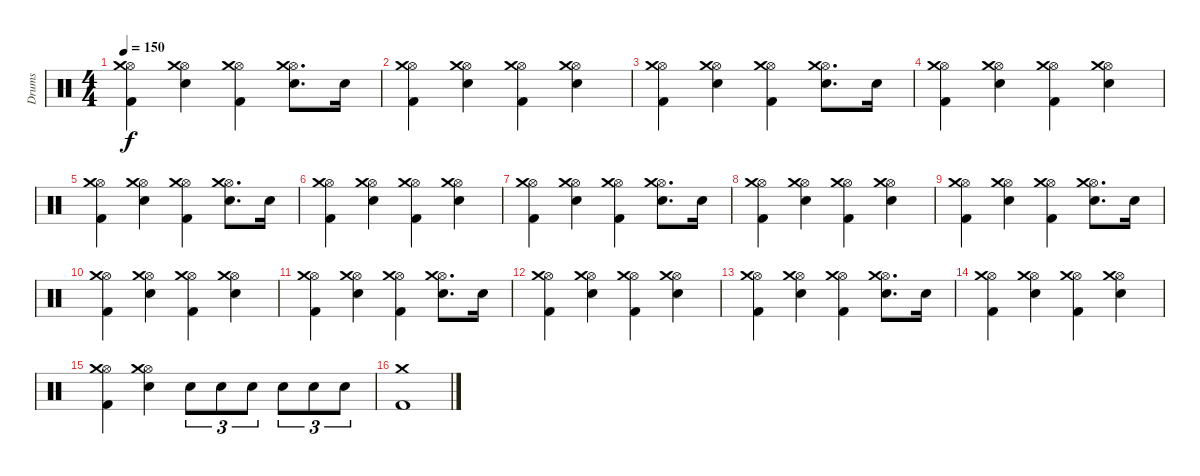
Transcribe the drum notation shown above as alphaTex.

\track ("Drums" "Drums") {instrument percussion}
\staff {score}
\articulation defaults
\ts (4 4)
\tempo 150
\clef neutral
\ks c
("Hi-Hat (open)" "Crash medium (hit)" "Kick (hit) 2").4{dy f} ("Hi-Hat (open)" "Crash medium (hit)" "Snare (hit) 2").4 ("Hi-Hat (open)" "Crash medium (hit)" "Kick (hit) 2").4 ("Hi-Hat (open)" "Crash medium (hit)" "Snare (hit) 2").8{d} "Snare (hit) 2".16 |
("Hi-Hat (open)" "Crash medium (hit)" "Kick (hit) 2").4 ("Hi-Hat (open)" "Crash medium (hit)" "Snare (hit) 2").4 ("Hi-Hat (open)" "Crash medium (hit)" "Kick (hit) 2").4 ("Hi-Hat (open)" "Crash medium (hit)" "Snare (hit) 2").4 |
("Hi-Hat (open)" "Crash medium (hit)" "Kick (hit) 2").4 ("Hi-Hat (open)" "Crash medium (hit)" "Snare (hit) 2").4 ("Hi-Hat (open)" "Crash medium (hit)" "Kick (hit) 2").4 ("Hi-Hat (open)" "Crash medium (hit)" "Snare (hit) 2").8{d} "Snare (hit) 2".16 |
("Hi-Hat (open)" "Crash medium (hit)" "Kick (hit) 2").4 ("Hi-Hat (open)" "Crash medium (hit)" "Snare (hit) 2").4 ("Hi-Hat (open)" "Crash medium (hit)" "Kick (hit) 2").4 ("Hi-Hat (open)" "Crash medium (hit)" "Snare (hit) 2").4 |
("Hi-Hat (open)" "Crash medium (hit)" "Kick (hit) 2").4 ("Hi-Hat (open)" "Crash medium (hit)" "Snare (hit) 2").4 ("Hi-Hat (open)" "Crash medium (hit)" "Kick (hit) 2").4 ("Hi-Hat (open)" "Crash medium (hit)" "Snare (hit) 2").8{d} "Snare (hit) 2".16 |
("Hi-Hat (open)" "Crash medium (hit)" "Kick (hit) 2").4 ("Hi-Hat (open)" "Crash medium (hit)" "Snare (hit) 2").4 ("Hi-Hat (open)" "Crash medium (hit)" "Kick (hit) 2").4 ("Hi-Hat (open)" "Crash medium (hit)" "Snare (hit) 2").4 |
("Hi-Hat (open)" "Crash medium (hit)" "Kick (hit) 2").4 ("Hi-Hat (open)" "Crash medium (hit)" "Snare (hit) 2").4 ("Hi-Hat (open)" "Crash medium (hit)" "Kick (hit) 2").4 ("Hi-Hat (open)" "Crash medium (hit)" "Snare (hit) 2").8{d} "Snare (hit) 2".16 |
("Hi-Hat (open)" "Crash medium (hit)" "Kick (hit) 2").4 ("Hi-Hat (open)" "Crash medium (hit)" "Snare (hit) 2").4 ("Hi-Hat (open)" "Crash medium (hit)" "Kick (hit) 2").4 ("Hi-Hat (open)" "Crash medium (hit)" "Snare (hit) 2").4 |
("Hi-Hat (open)" "Crash medium (hit)" "Kick (hit) 2").4 ("Hi-Hat (open)" "Crash medium (hit)" "Snare (hit) 2").4 ("Hi-Hat (open)" "Crash medium (hit)" "Kick (hit) 2").4 ("Hi-Hat (open)" "Crash medium (hit)" "Snare (hit) 2").8{d} "Snare (hit) 2".16 |
("Hi-Hat (open)" "Crash medium (hit)" "Kick (hit) 2").4 ("Hi-Hat (open)" "Crash medium (hit)" "Snare (hit) 2").4 ("Hi-Hat (open)" "Crash medium (hit)" "Kick (hit) 2").4 ("Hi-Hat (open)" "Crash medium (hit)" "Snare (hit) 2").4 |
("Hi-Hat (open)" "Crash medium (hit)" "Kick (hit) 2").4 ("Hi-Hat (open)" "Crash medium (hit)" "Snare (hit) 2").4 ("Hi-Hat (open)" "Crash medium (hit)" "Kick (hit) 2").4 ("Hi-Hat (open)" "Crash medium (hit)" "Snare (hit) 2").8{d} "Snare (hit) 2".16 |
("Hi-Hat (open)" "Crash medium (hit)" "Kick (hit) 2").4 ("Hi-Hat (open)" "Crash medium (hit)" "Snare (hit) 2").4 ("Hi-Hat (open)" "Crash medium (hit)" "Kick (hit) 2").4 ("Hi-Hat (open)" "Crash medium (hit)" "Snare (hit) 2").4 |
("Hi-Hat (open)" "Crash medium (hit)" "Kick (hit) 2").4 ("Hi-Hat (open)" "Crash medium (hit)" "Snare (hit) 2").4 ("Hi-Hat (open)" "Crash medium (hit)" "Kick (hit) 2").4 ("Hi-Hat (open)" "Crash medium (hit)" "Snare (hit) 2").8{d} "Snare (hit) 2".16 |
("Hi-Hat (open)" "Crash medium (hit)" "Kick (hit) 2").4 ("Hi-Hat (open)" "Crash medium (hit)" "Snare (hit) 2").4 ("Hi-Hat (open)" "Crash medium (hit)" "Kick (hit) 2").4 ("Hi-Hat (open)" "Crash medium (hit)" "Snare (hit) 2").4 |
("Hi-Hat (open)" "Crash medium (hit)" "Kick (hit) 2").4 ("Hi-Hat (open)" "Crash medium (hit)" "Snare (hit) 2").4 "Snare (hit) 2".8{tu (3 2)} "Snare (hit) 2".8{tu (3 2)} "Snare (hit) 2".8{tu (3 2)} "Snare (hit) 2".8{tu (3 2)} "Snare (hit) 2".8{tu (3 2)} "Snare (hit) 2".8{tu (3 2)} |
("Crash medium (hit)" "Kick (hit) 2").1
